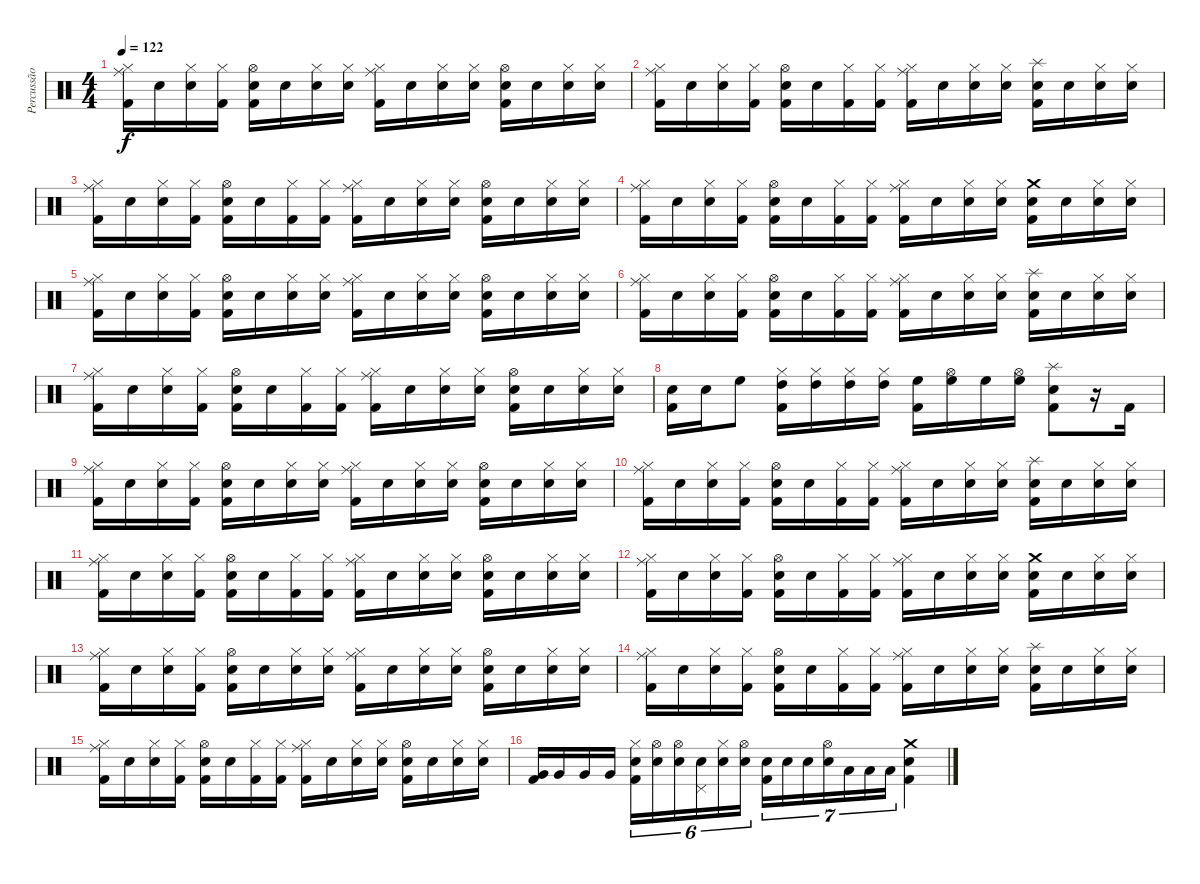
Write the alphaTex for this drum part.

\track ("Percussão" "Percussão") {instrument percussion}
\staff {score}
\articulation defaults
\ts (4 4)
\tempo 122
\clef neutral
\ks c
("Kick (hit) 2" "Hi-Hat (closed)" "Ride (middle)").16{dy f} "Snare (hit)".16 ("Snare (hit)" "Hi-Hat (closed)").16 ("Kick (hit) 2" "Hi-Hat (closed)").16 ("Kick (hit) 2" "Electric Snare (hit)" "Hi-Hat (open)").16 "Snare (hit)".16 ("Snare (hit)" "Hi-Hat (closed)").16 ("Snare (hit)" "Hi-Hat (closed)").16 ("Kick (hit) 2" "Hi-Hat (closed)" "Ride (middle)").16 "Snare (hit)".16 ("Snare (hit)" "Hi-Hat (closed)").16 ("Snare (hit)" "Hi-Hat (closed)").16 ("Kick (hit) 2" "Electric Snare (hit)" "Hi-Hat (open)").16 "Snare (hit)".16 ("Snare (hit)" "Hi-Hat (closed)").16 ("Snare (hit)" "Hi-Hat (closed)").16 |
("Kick (hit) 2" "Hi-Hat (closed)" "Ride (middle)").16 "Snare (hit)".16 ("Snare (hit)" "Hi-Hat (closed)").16 ("Kick (hit) 2" "Hi-Hat (closed)").16 ("Kick (hit) 2" "Electric Snare (hit)" "Hi-Hat (open)").16 "Snare (hit)".16 ("Kick (hit) 2" "Hi-Hat (closed)").16 ("Kick (hit) 2" "Hi-Hat (closed)").16 ("Kick (hit) 2" "Hi-Hat (closed)" "Ride (middle)").16 "Snare (hit)".16 ("Snare (hit)" "Hi-Hat (closed)").16 ("Snare (hit)" "Hi-Hat (closed)").16 ("Kick (hit) 2" "Electric Snare (hit)" "Splash (hit)").16 "Snare (hit)".16 ("Snare (hit)" "Hi-Hat (closed)").16 ("Snare (hit)" "Hi-Hat (closed)").16 |
("Kick (hit) 2" "Hi-Hat (closed)" "Ride (middle)").16 "Snare (hit)".16 ("Snare (hit)" "Hi-Hat (closed)").16 ("Kick (hit) 2" "Hi-Hat (closed)").16 ("Kick (hit) 2" "Electric Snare (hit)" "Hi-Hat (open)").16 "Snare (hit)".16 ("Kick (hit) 2" "Hi-Hat (closed)").16 ("Kick (hit) 2" "Hi-Hat (closed)").16 ("Kick (hit) 2" "Hi-Hat (closed)" "Ride (middle)").16 "Snare (hit)".16 ("Snare (hit)" "Hi-Hat (closed)").16 ("Snare (hit)" "Hi-Hat (closed)").16 ("Kick (hit) 2" "Electric Snare (hit)" "Hi-Hat (open)").16 "Snare (hit)".16 ("Snare (hit)" "Hi-Hat (closed)").16 ("Snare (hit)" "Hi-Hat (closed)").16 |
("Kick (hit) 2" "Hi-Hat (closed)" "Ride (middle)").16 "Snare (hit)".16 ("Snare (hit)" "Hi-Hat (closed)").16 ("Kick (hit) 2" "Hi-Hat (closed)").16 ("Kick (hit) 2" "Electric Snare (hit)" "Hi-Hat (open)").16 "Snare (hit)".16 ("Kick (hit) 2" "Hi-Hat (closed)").16 ("Kick (hit) 2" "Hi-Hat (closed)").16 ("Kick (hit) 2" "Hi-Hat (closed)" "Ride (middle)").16 "Snare (hit)".16 ("Snare (hit)" "Hi-Hat (closed)").16 ("Snare (hit)" "Hi-Hat (closed)").16 ("Kick (hit) 2" "Electric Snare (hit)" "Crash medium (hit)").16 "Snare (hit)".16 ("Snare (hit)" "Hi-Hat (closed)").16 ("Snare (hit)" "Hi-Hat (closed)").16 |
("Kick (hit) 2" "Hi-Hat (closed)" "Ride (middle)").16 "Snare (hit)".16 ("Snare (hit)" "Hi-Hat (closed)").16 ("Kick (hit) 2" "Hi-Hat (closed)").16 ("Kick (hit) 2" "Electric Snare (hit)" "Hi-Hat (open)").16 "Snare (hit)".16 ("Snare (hit)" "Hi-Hat (closed)").16 ("Snare (hit)" "Hi-Hat (closed)").16 ("Kick (hit) 2" "Hi-Hat (closed)" "Ride (middle)").16 "Snare (hit)".16 ("Snare (hit)" "Hi-Hat (closed)").16 ("Snare (hit)" "Hi-Hat (closed)").16 ("Kick (hit) 2" "Electric Snare (hit)" "Hi-Hat (open)").16 "Snare (hit)".16 ("Snare (hit)" "Hi-Hat (closed)").16 ("Snare (hit)" "Hi-Hat (closed)").16 |
("Kick (hit) 2" "Hi-Hat (closed)" "Ride (middle)").16 "Snare (hit)".16 ("Snare (hit)" "Hi-Hat (closed)").16 ("Kick (hit) 2" "Hi-Hat (closed)").16 ("Kick (hit) 2" "Electric Snare (hit)" "Hi-Hat (open)").16 "Snare (hit)".16 ("Kick (hit) 2" "Hi-Hat (closed)").16 ("Kick (hit) 2" "Hi-Hat (closed)").16 ("Kick (hit) 2" "Hi-Hat (closed)" "Ride (middle)").16 "Snare (hit)".16 ("Snare (hit)" "Hi-Hat (closed)").16 ("Snare (hit)" "Hi-Hat (closed)").16 ("Kick (hit) 2" "Electric Snare (hit)" "Splash (hit)").16 "Snare (hit)".16 ("Snare (hit)" "Hi-Hat (closed)").16 ("Snare (hit)" "Hi-Hat (closed)").16 |
("Kick (hit) 2" "Hi-Hat (closed)" "Ride (middle)").16 "Snare (hit)".16 ("Snare (hit)" "Hi-Hat (closed)").16 ("Kick (hit) 2" "Hi-Hat (closed)").16 ("Kick (hit) 2" "Electric Snare (hit)" "Hi-Hat (open)").16 "Snare (hit)".16 ("Kick (hit) 2" "Hi-Hat (closed)").16 ("Kick (hit) 2" "Hi-Hat (closed)").16 ("Kick (hit) 2" "Hi-Hat (closed)" "Ride (middle)").16 "Snare (hit)".16 ("Snare (hit)" "Hi-Hat (closed)").16 ("Snare (hit)" "Hi-Hat (closed)").16 ("Kick (hit) 2" "Electric Snare (hit)" "Hi-Hat (open)").16 "Snare (hit)".16 ("Snare (hit)" "Hi-Hat (closed)").16 ("Snare (hit)" "Hi-Hat (closed)").16 |
("Kick (hit) 2" "Electric Snare (hit)").16 "Electric Snare (hit)".16 "High Floor Tom (hit)".8 ("Kick (hit) 2" "Hi-Hat (closed)" "High Tom (hit)").16 ("Hi-Hat (closed)" "High Tom (hit)").16 ("Hi-Hat (closed)" "High Tom (hit)").16 ("Hi-Hat (closed)" "High Tom (hit)").16 ("Kick (hit) 2" "High Floor Tom (hit)").16 ("Hi-Hat (open)" "High Floor Tom (hit)").16 "High Floor Tom (hit)".16 ("Hi-Hat (open)" "High Floor Tom (hit)").16 ("Kick (hit) 2" "Electric Snare (hit)" "Splash (hit)").8 r.16 "Kick (hit) 2".16 |
("Kick (hit) 2" "Hi-Hat (closed)" "Ride (middle)").16 "Snare (hit)".16 ("Snare (hit)" "Hi-Hat (closed)").16 ("Kick (hit) 2" "Hi-Hat (closed)").16 ("Kick (hit) 2" "Electric Snare (hit)" "Hi-Hat (open)").16 "Snare (hit)".16 ("Snare (hit)" "Hi-Hat (closed)").16 ("Snare (hit)" "Hi-Hat (closed)").16 ("Kick (hit) 2" "Hi-Hat (closed)" "Ride (middle)").16 "Snare (hit)".16 ("Snare (hit)" "Hi-Hat (closed)").16 ("Snare (hit)" "Hi-Hat (closed)").16 ("Kick (hit) 2" "Electric Snare (hit)" "Hi-Hat (open)").16 "Snare (hit)".16 ("Snare (hit)" "Hi-Hat (closed)").16 ("Snare (hit)" "Hi-Hat (closed)").16 |
("Kick (hit) 2" "Hi-Hat (closed)" "Ride (middle)").16 "Snare (hit)".16 ("Snare (hit)" "Hi-Hat (closed)").16 ("Kick (hit) 2" "Hi-Hat (closed)").16 ("Kick (hit) 2" "Electric Snare (hit)" "Hi-Hat (open)").16 "Snare (hit)".16 ("Kick (hit) 2" "Hi-Hat (closed)").16 ("Kick (hit) 2" "Hi-Hat (closed)").16 ("Kick (hit) 2" "Hi-Hat (closed)" "Ride (middle)").16 "Snare (hit)".16 ("Snare (hit)" "Hi-Hat (closed)").16 ("Snare (hit)" "Hi-Hat (closed)").16 ("Kick (hit) 2" "Electric Snare (hit)" "Splash (hit)").16 "Snare (hit)".16 ("Snare (hit)" "Hi-Hat (closed)").16 ("Snare (hit)" "Hi-Hat (closed)").16 |
("Kick (hit) 2" "Hi-Hat (closed)" "Ride (middle)").16 "Snare (hit)".16 ("Snare (hit)" "Hi-Hat (closed)").16 ("Kick (hit) 2" "Hi-Hat (closed)").16 ("Kick (hit) 2" "Electric Snare (hit)" "Hi-Hat (open)").16 "Snare (hit)".16 ("Kick (hit) 2" "Hi-Hat (closed)").16 ("Kick (hit) 2" "Hi-Hat (closed)").16 ("Kick (hit) 2" "Hi-Hat (closed)" "Ride (middle)").16 "Snare (hit)".16 ("Snare (hit)" "Hi-Hat (closed)").16 ("Snare (hit)" "Hi-Hat (closed)").16 ("Kick (hit) 2" "Electric Snare (hit)" "Hi-Hat (open)").16 "Snare (hit)".16 ("Snare (hit)" "Hi-Hat (closed)").16 ("Snare (hit)" "Hi-Hat (closed)").16 |
("Kick (hit) 2" "Hi-Hat (closed)" "Ride (middle)").16 "Snare (hit)".16 ("Snare (hit)" "Hi-Hat (closed)").16 ("Kick (hit) 2" "Hi-Hat (closed)").16 ("Kick (hit) 2" "Electric Snare (hit)" "Hi-Hat (open)").16 "Snare (hit)".16 ("Kick (hit) 2" "Hi-Hat (closed)").16 ("Kick (hit) 2" "Hi-Hat (closed)").16 ("Kick (hit) 2" "Hi-Hat (closed)" "Ride (middle)").16 "Snare (hit)".16 ("Snare (hit)" "Hi-Hat (closed)").16 ("Snare (hit)" "Hi-Hat (closed)").16 ("Kick (hit) 2" "Electric Snare (hit)" "Crash medium (hit)").16 "Snare (hit)".16 ("Snare (hit)" "Hi-Hat (closed)").16 ("Snare (hit)" "Hi-Hat (closed)").16 |
("Kick (hit) 2" "Hi-Hat (closed)" "Ride (middle)").16 "Snare (hit)".16 ("Snare (hit)" "Hi-Hat (closed)").16 ("Kick (hit) 2" "Hi-Hat (closed)").16 ("Kick (hit) 2" "Electric Snare (hit)" "Hi-Hat (open)").16 "Snare (hit)".16 ("Snare (hit)" "Hi-Hat (closed)").16 ("Snare (hit)" "Hi-Hat (closed)").16 ("Kick (hit) 2" "Hi-Hat (closed)" "Ride (middle)").16 "Snare (hit)".16 ("Snare (hit)" "Hi-Hat (closed)").16 ("Snare (hit)" "Hi-Hat (closed)").16 ("Kick (hit) 2" "Electric Snare (hit)" "Hi-Hat (open)").16 "Snare (hit)".16 ("Snare (hit)" "Hi-Hat (closed)").16 ("Snare (hit)" "Hi-Hat (closed)").16 |
("Kick (hit) 2" "Hi-Hat (closed)" "Ride (middle)").16 "Snare (hit)".16 ("Snare (hit)" "Hi-Hat (closed)").16 ("Kick (hit) 2" "Hi-Hat (closed)").16 ("Kick (hit) 2" "Electric Snare (hit)" "Hi-Hat (open)").16 "Snare (hit)".16 ("Kick (hit) 2" "Hi-Hat (closed)").16 ("Kick (hit) 2" "Hi-Hat (closed)").16 ("Kick (hit) 2" "Hi-Hat (closed)" "Ride (middle)").16 "Snare (hit)".16 ("Snare (hit)" "Hi-Hat (closed)").16 ("Snare (hit)" "Hi-Hat (closed)").16 ("Kick (hit) 2" "Electric Snare (hit)" "Splash (hit)").16 "Snare (hit)".16 ("Snare (hit)" "Hi-Hat (closed)").16 ("Snare (hit)" "Hi-Hat (closed)").16 |
("Kick (hit) 2" "Hi-Hat (closed)" "Ride (middle)").16 "Snare (hit)".16 ("Snare (hit)" "Hi-Hat (closed)").16 ("Kick (hit) 2" "Hi-Hat (closed)").16 ("Kick (hit) 2" "Electric Snare (hit)" "Hi-Hat (open)").16 "Snare (hit)".16 ("Kick (hit) 2" "Hi-Hat (closed)").16 ("Kick (hit) 2" "Hi-Hat (closed)").16 ("Kick (hit) 2" "Hi-Hat (closed)" "Ride (middle)").16 "Snare (hit)".16 ("Snare (hit)" "Hi-Hat (closed)").16 ("Snare (hit)" "Hi-Hat (closed)").16 ("Kick (hit) 2" "Electric Snare (hit)" "Hi-Hat (open)").16 "Snare (hit)".16 ("Snare (hit)" "Hi-Hat (closed)").16 ("Snare (hit)" "Hi-Hat (closed)").16 |
("Very Low Tom (hit)" "Kick (hit) 2").16 "Very Low Tom (hit)".16 "Very Low Tom (hit)".16 "Very Low Tom (hit)".16 ("Electric Snare (hit)" "Hi-Hat (closed)" "Kick (hit) 2").16{tu (6 4)} ("Electric Snare (hit)" "Hi-Hat (open)").16{tu (6 4)} ("Electric Snare (hit)" "Hi-Hat (open)").16{tu (6 4)} ("Electric Snare (hit)" "Pedal Hi-Hat (hit)").16{tu (6 4)} ("Electric Snare (hit)" "Hi-Hat (closed)").16{tu (6 4)} ("Electric Snare (hit)" "Hi-Hat (open)").16{tu (6 4)} ("Snare (hit) 2" "Kick (hit) 2").16{tu (7 4)} "Snare (hit) 2".16{tu (7 4)} "Snare (hit) 2".16{tu (7 4)} ("Electric Snare (hit)" "Hi-Hat (open)").16{tu (7 4)} "Low Floor Tom (hit)".16{tu (7 4)} "Low Floor Tom (hit)".16{tu (7 4)} "Low Floor Tom (hit)".16{tu (7 4)} ("Electric Snare (hit)" "Crash medium (hit)" "Kick (hit) 2").4
